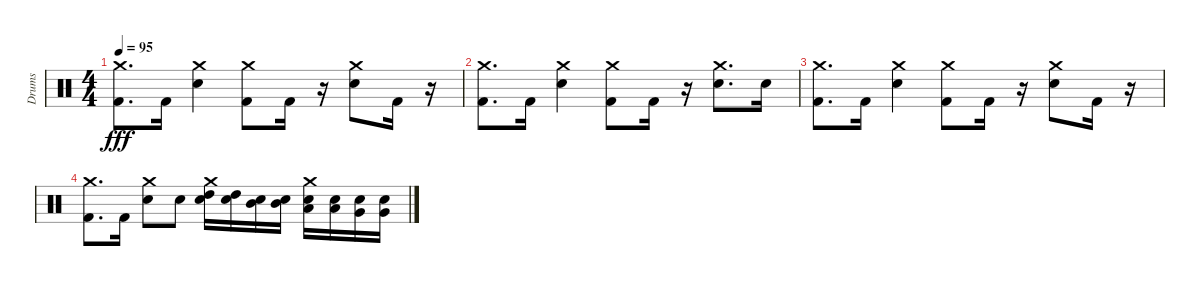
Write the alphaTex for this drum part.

\track ("Drums" "Drums") {instrument percussion}
\staff {score}
\articulation defaults
\ts (4 4)
\tempo 95
\clef neutral
\ks c
("Crash medium (hit)" "Kick (hit) 2").8{d dy fff} "Kick (hit) 2".16 ("Crash medium (hit)" "Electric Snare (hit)").4 ("Crash medium (hit)" "Kick (hit) 2").8 "Kick (hit) 2".16 r.16 ("Crash medium (hit)" "Electric Snare (hit)").8 "Kick (hit) 2".16 r.16 |
("Crash medium (hit)" "Kick (hit) 2").8{d} "Kick (hit) 2".16 ("Crash medium (hit)" "Electric Snare (hit)").4 ("Crash medium (hit)" "Kick (hit) 2").8 "Kick (hit) 2".16 r.16 ("Crash medium (hit)" "Electric Snare (hit)").8{d} "Electric Snare (hit)".16 |
("Crash medium (hit)" "Kick (hit) 2").8{d} "Kick (hit) 2".16 ("Crash medium (hit)" "Electric Snare (hit)").4 ("Crash medium (hit)" "Kick (hit) 2").8 "Kick (hit) 2".16 r.16 ("Crash medium (hit)" "Electric Snare (hit)").8 "Kick (hit) 2".16 r.16 |
("Crash medium (hit)" "Kick (hit) 2").8{d} "Kick (hit) 2".16 ("Crash medium (hit)" "Electric Snare (hit)").8 "Electric Snare (hit)".8 ("High Tom (hit)" "Electric Snare (hit)" "Crash medium (hit)").16 ("High Tom (hit)" "Electric Snare (hit)").16 ("Mid Tom (hit)" "Electric Snare (hit)").16 ("Mid Tom (hit)" "Electric Snare (hit)").16 ("Low Tom (hit)" "Electric Snare (hit)" "Crash medium (hit)").16 ("Low Tom (hit)" "Electric Snare (hit)").16 ("Very Low Tom (hit)" "Electric Snare (hit)").16 ("Very Low Tom (hit)" "Electric Snare (hit)").16
